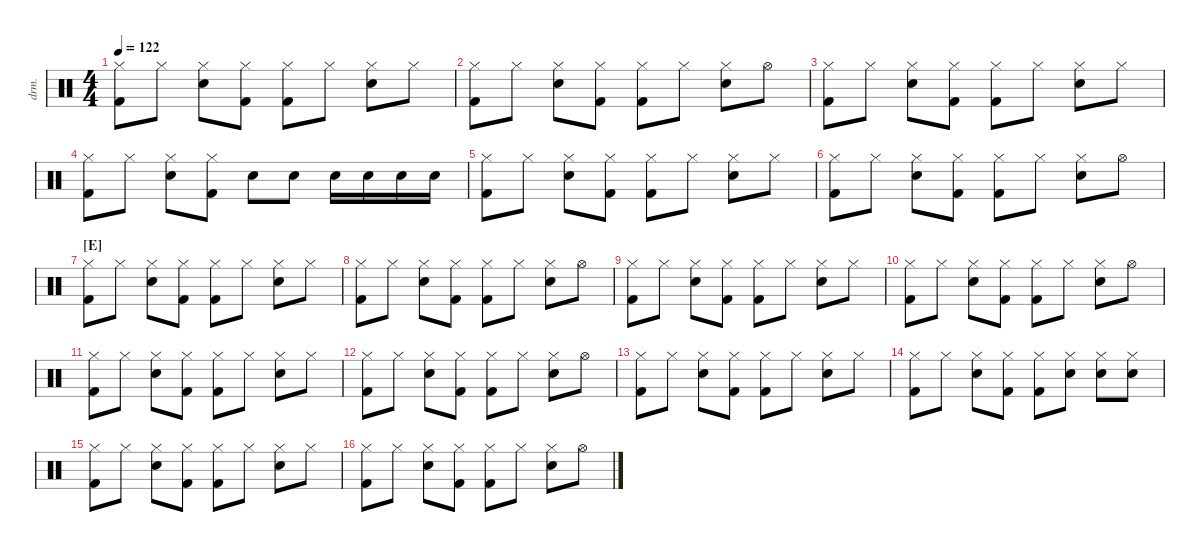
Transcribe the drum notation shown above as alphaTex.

\defaultSystemsLayout 4
\hideDynamics
\bracketExtendMode nobrackets
\track ("Drumkit" "drm.") {defaultSystemsLayout 4 instrument percussion}
\staff {score}
\articulation defaults
\ts (4 4)
\tempo 122
\clef neutral
\ks c
("Hi-Hat (closed)" "Kick (hit) 2").8{dy f} "Hi-Hat (closed)".8 ("Hi-Hat (closed)" "Snare (hit) 2").8 ("Hi-Hat (closed)" "Kick (hit) 2").8 ("Hi-Hat (closed)" "Kick (hit) 2").8 "Hi-Hat (closed)".8 ("Hi-Hat (closed)" "Snare (hit) 2").8 "Hi-Hat (closed)".8 |
("Hi-Hat (closed)" "Kick (hit) 2").8 "Hi-Hat (closed)".8 ("Hi-Hat (closed)" "Snare (hit) 2").8 ("Hi-Hat (closed)" "Kick (hit) 2").8 ("Hi-Hat (closed)" "Kick (hit) 2").8 "Hi-Hat (closed)".8 ("Hi-Hat (closed)" "Snare (hit) 2").8 "Hi-Hat (open)".8 |
("Hi-Hat (closed)" "Kick (hit) 2").8 "Hi-Hat (closed)".8 ("Hi-Hat (closed)" "Snare (hit) 2").8 ("Hi-Hat (closed)" "Kick (hit) 2").8 ("Hi-Hat (closed)" "Kick (hit) 2").8 "Hi-Hat (closed)".8 ("Hi-Hat (closed)" "Snare (hit) 2").8 "Hi-Hat (closed)".8 |
("Hi-Hat (closed)" "Kick (hit) 2").8 "Hi-Hat (closed)".8 ("Hi-Hat (closed)" "Snare (hit) 2").8 ("Hi-Hat (closed)" "Kick (hit) 2").8 "Snare (hit) 2".8 "Snare (hit) 2".8 "Snare (hit) 2".16 "Snare (hit) 2".16 "Snare (hit) 2".16 "Snare (hit) 2".16 |
("Hi-Hat (closed)" "Kick (hit) 2").8 "Hi-Hat (closed)".8 ("Hi-Hat (closed)" "Snare (hit) 2").8 ("Hi-Hat (closed)" "Kick (hit) 2").8 ("Hi-Hat (closed)" "Kick (hit) 2").8 "Hi-Hat (closed)".8 ("Hi-Hat (closed)" "Snare (hit) 2").8 "Hi-Hat (closed)".8 |
("Hi-Hat (closed)" "Kick (hit) 2").8 "Hi-Hat (closed)".8 ("Hi-Hat (closed)" "Snare (hit) 2").8 ("Hi-Hat (closed)" "Kick (hit) 2").8 ("Hi-Hat (closed)" "Kick (hit) 2").8 "Hi-Hat (closed)".8 ("Hi-Hat (closed)" "Snare (hit) 2").8 "Hi-Hat (open)".8 |
\section ("E" "")
("Hi-Hat (closed)" "Kick (hit) 2").8 "Hi-Hat (closed)".8 ("Hi-Hat (closed)" "Snare (hit) 2").8 ("Hi-Hat (closed)" "Kick (hit) 2").8 ("Hi-Hat (closed)" "Kick (hit) 2").8 "Hi-Hat (closed)".8 ("Hi-Hat (closed)" "Snare (hit) 2").8 "Hi-Hat (closed)".8 |
("Hi-Hat (closed)" "Kick (hit) 2").8 "Hi-Hat (closed)".8 ("Hi-Hat (closed)" "Snare (hit) 2").8 ("Hi-Hat (closed)" "Kick (hit) 2").8 ("Hi-Hat (closed)" "Kick (hit) 2").8 "Hi-Hat (closed)".8 ("Hi-Hat (closed)" "Snare (hit) 2").8 "Hi-Hat (open)".8 |
("Hi-Hat (closed)" "Kick (hit) 2").8 "Hi-Hat (closed)".8 ("Hi-Hat (closed)" "Snare (hit) 2").8 ("Hi-Hat (closed)" "Kick (hit) 2").8 ("Hi-Hat (closed)" "Kick (hit) 2").8 "Hi-Hat (closed)".8 ("Hi-Hat (closed)" "Snare (hit) 2").8 "Hi-Hat (closed)".8 |
("Hi-Hat (closed)" "Kick (hit) 2").8 "Hi-Hat (closed)".8 ("Hi-Hat (closed)" "Snare (hit) 2").8 ("Hi-Hat (closed)" "Kick (hit) 2").8 ("Hi-Hat (closed)" "Kick (hit) 2").8 "Hi-Hat (closed)".8 ("Hi-Hat (closed)" "Snare (hit) 2").8 "Hi-Hat (open)".8 |
("Hi-Hat (closed)" "Kick (hit) 2").8 "Hi-Hat (closed)".8 ("Hi-Hat (closed)" "Snare (hit) 2").8 ("Hi-Hat (closed)" "Kick (hit) 2").8 ("Hi-Hat (closed)" "Kick (hit) 2").8 "Hi-Hat (closed)".8 ("Hi-Hat (closed)" "Snare (hit) 2").8 "Hi-Hat (closed)".8 |
("Hi-Hat (closed)" "Kick (hit) 2").8 "Hi-Hat (closed)".8 ("Hi-Hat (closed)" "Snare (hit) 2").8 ("Hi-Hat (closed)" "Kick (hit) 2").8 ("Hi-Hat (closed)" "Kick (hit) 2").8 "Hi-Hat (closed)".8 ("Hi-Hat (closed)" "Snare (hit) 2").8 "Hi-Hat (open)".8 |
("Hi-Hat (closed)" "Kick (hit) 2").8 "Hi-Hat (closed)".8 ("Hi-Hat (closed)" "Snare (hit) 2").8 ("Hi-Hat (closed)" "Kick (hit) 2").8 ("Hi-Hat (closed)" "Kick (hit) 2").8 "Hi-Hat (closed)".8 ("Hi-Hat (closed)" "Snare (hit) 2").8 "Hi-Hat (closed)".8 |
("Hi-Hat (closed)" "Kick (hit) 2").8 "Hi-Hat (closed)".8 ("Hi-Hat (closed)" "Snare (hit) 2").8 ("Hi-Hat (closed)" "Kick (hit) 2").8 ("Hi-Hat (closed)" "Kick (hit) 2").8 ("Hi-Hat (closed)" "Snare (hit) 2").8 ("Hi-Hat (closed)" "Snare (hit) 2").8 ("Hi-Hat (closed)" "Snare (hit) 2").8 |
("Hi-Hat (closed)" "Kick (hit) 2").8 "Hi-Hat (closed)".8 ("Hi-Hat (closed)" "Snare (hit) 2").8 ("Hi-Hat (closed)" "Kick (hit) 2").8 ("Hi-Hat (closed)" "Kick (hit) 2").8 "Hi-Hat (closed)".8 ("Hi-Hat (closed)" "Snare (hit) 2").8 "Hi-Hat (closed)".8 |
("Hi-Hat (closed)" "Kick (hit) 2").8 "Hi-Hat (closed)".8 ("Hi-Hat (closed)" "Snare (hit) 2").8 ("Hi-Hat (closed)" "Kick (hit) 2").8 ("Hi-Hat (closed)" "Kick (hit) 2").8 "Hi-Hat (closed)".8 ("Hi-Hat (closed)" "Snare (hit) 2").8 "Hi-Hat (open)".8
